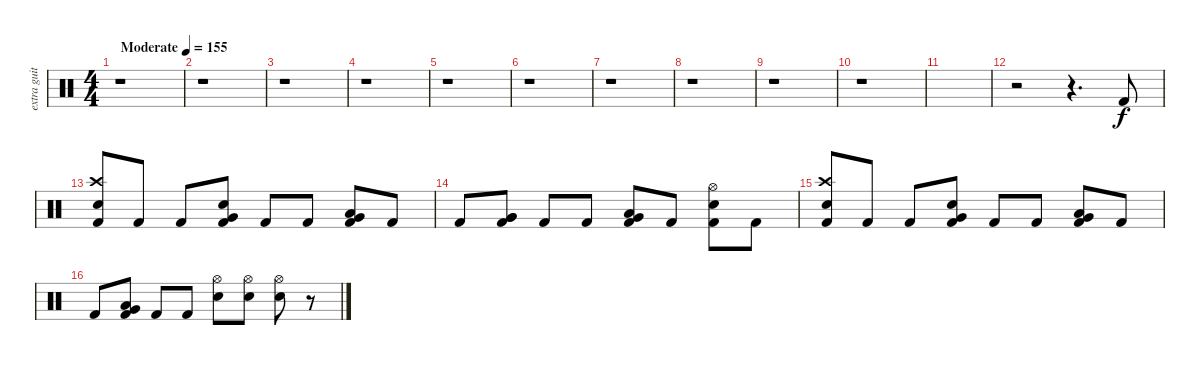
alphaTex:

\track ("extra guitar" "extra guit") {instrument percussion}
\staff {score}
\articulation defaults
\ts (4 4)
\tempo (155 "Moderate")
\clef neutral
\ks c
r.1{dy f} |
r.1 |
r.1 |
r.1 |
r.1 |
r.1 |
r.1 |
r.1 |
r.1 |
r.1 |
|
r.2 r.4{d} "Kick (hit) 2".8 |
("Crash high (hit)" "Electric Snare (hit)" "Kick (hit) 2").8 "Kick (hit) 2".8 "Kick (hit) 2".8 ("Electric Snare (hit)" "Very Low Tom (hit)" "Kick (hit) 2").8 "Kick (hit) 2".8 "Kick (hit) 2".8 ("Low Tom (hit)" "Very Low Tom (hit)" "Kick (hit) 2").8 "Kick (hit) 2".8 |
"Kick (hit) 2".8 ("Very Low Tom (hit)" "Very Low Tom (hit)" "Kick (hit) 2").8 "Kick (hit) 2".8 "Kick (hit) 2".8 ("Low Tom (hit)" "Very Low Tom (hit)" "Kick (hit) 2").8 "Kick (hit) 2".8 ("Hi-Hat (open)" "Electric Snare (hit)" "Kick (hit) 2").8 "Kick (hit) 2".8 |
("Crash high (hit)" "Electric Snare (hit)" "Kick (hit) 2").8 "Kick (hit) 2".8 "Kick (hit) 2".8 ("Electric Snare (hit)" "Very Low Tom (hit)" "Kick (hit) 2").8 "Kick (hit) 2".8 "Kick (hit) 2".8 ("Low Tom (hit)" "Very Low Tom (hit)" "Kick (hit) 2").8 "Kick (hit) 2".8 |
"Kick (hit) 2".8 ("Low Tom (hit)" "Very Low Tom (hit)" "Kick (hit) 2").8 "Kick (hit) 2".8 "Kick (hit) 2".8 ("Hi-Hat (open)" "Electric Snare (hit)").8 ("Hi-Hat (open)" "Electric Snare (hit)").8 ("Hi-Hat (open)" "Electric Snare (hit)").8 r.8
